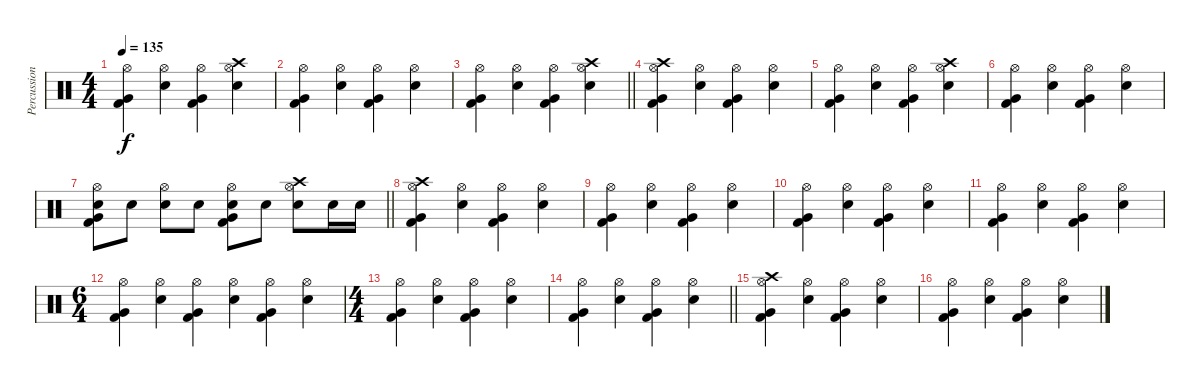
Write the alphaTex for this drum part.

\track ("Percussion" "Percussion") {instrument percussion}
\staff {score}
\articulation defaults
\ts (4 4)
\tempo 135
\clef neutral
\ks c
("Hi-Hat (open)" "Very Low Tom (hit)" "Kick (hit) 2").4{dy f} ("Hi-Hat (open)" "Electric Snare (hit)").4 ("Hi-Hat (open)" "Very Low Tom (hit)" "Kick (hit) 2").4 ("Hi-Hat (open)" "Crash high (hit)" "Electric Snare (hit)").4 |
("Hi-Hat (open)" "Very Low Tom (hit)" "Kick (hit) 2").4 ("Hi-Hat (open)" "Electric Snare (hit)").4 ("Hi-Hat (open)" "Very Low Tom (hit)" "Kick (hit) 2").4 ("Hi-Hat (open)" "Electric Snare (hit)").4 |
\barLineRight lightlight
("Hi-Hat (open)" "Very Low Tom (hit)" "Kick (hit) 2").4 ("Hi-Hat (open)" "Electric Snare (hit)").4 ("Hi-Hat (open)" "Very Low Tom (hit)" "Kick (hit) 2").4 ("Hi-Hat (open)" "Crash high (hit)" "Electric Snare (hit)").4 |
("Hi-Hat (open)" "Crash high (hit)" "Very Low Tom (hit)" "Kick (hit) 2").4 ("Hi-Hat (open)" "Electric Snare (hit)").4 ("Hi-Hat (open)" "Very Low Tom (hit)" "Kick (hit) 2").4 ("Hi-Hat (open)" "Electric Snare (hit)").4 |
("Hi-Hat (open)" "Very Low Tom (hit)" "Kick (hit) 2").4 ("Hi-Hat (open)" "Electric Snare (hit)").4 ("Hi-Hat (open)" "Very Low Tom (hit)" "Kick (hit) 2").4 ("Hi-Hat (open)" "Crash high (hit)" "Electric Snare (hit)").4 |
("Hi-Hat (open)" "Very Low Tom (hit)" "Kick (hit) 2").4 ("Hi-Hat (open)" "Electric Snare (hit)").4 ("Hi-Hat (open)" "Very Low Tom (hit)" "Kick (hit) 2").4 ("Hi-Hat (open)" "Electric Snare (hit)").4 |
\barLineRight lightlight
("Hi-Hat (open)" "Electric Snare (hit)" "Very Low Tom (hit)" "Kick (hit) 2").8 "Electric Snare (hit)".8 ("Hi-Hat (open)" "Electric Snare (hit)").8 "Electric Snare (hit)".8 ("Hi-Hat (open)" "Electric Snare (hit)" "Very Low Tom (hit)" "Kick (hit) 2").8 "Electric Snare (hit)".8 ("Hi-Hat (open)" "Crash high (hit)" "Electric Snare (hit)").8 "Electric Snare (hit)".16 "Electric Snare (hit)".16 |
("Hi-Hat (open)" "Crash high (hit)" "Very Low Tom (hit)" "Kick (hit) 2").4 ("Hi-Hat (open)" "Electric Snare (hit)").4 ("Hi-Hat (open)" "Very Low Tom (hit)" "Kick (hit) 2").4 ("Hi-Hat (open)" "Electric Snare (hit)").4 |
("Hi-Hat (open)" "Very Low Tom (hit)" "Kick (hit) 2").4 ("Hi-Hat (open)" "Electric Snare (hit)").4 ("Hi-Hat (open)" "Very Low Tom (hit)" "Kick (hit) 2").4 ("Hi-Hat (open)" "Electric Snare (hit)").4 |
("Hi-Hat (open)" "Very Low Tom (hit)" "Kick (hit) 2").4 ("Hi-Hat (open)" "Electric Snare (hit)").4 ("Hi-Hat (open)" "Very Low Tom (hit)" "Kick (hit) 2").4 ("Hi-Hat (open)" "Electric Snare (hit)").4 |
("Hi-Hat (open)" "Very Low Tom (hit)" "Kick (hit) 2").4 ("Hi-Hat (open)" "Electric Snare (hit)").4 ("Hi-Hat (open)" "Very Low Tom (hit)" "Kick (hit) 2").4 ("Hi-Hat (open)" "Electric Snare (hit)").4 |
\ts (6 4)
("Hi-Hat (open)" "Very Low Tom (hit)" "Kick (hit) 2").4 ("Hi-Hat (open)" "Electric Snare (hit)").4 ("Hi-Hat (open)" "Very Low Tom (hit)" "Kick (hit) 2").4 ("Hi-Hat (open)" "Electric Snare (hit)").4 ("Hi-Hat (open)" "Very Low Tom (hit)" "Kick (hit) 2").4 ("Hi-Hat (open)" "Electric Snare (hit)").4 |
\ts (4 4)
("Hi-Hat (open)" "Very Low Tom (hit)" "Kick (hit) 2").4 ("Hi-Hat (open)" "Electric Snare (hit)").4 ("Hi-Hat (open)" "Very Low Tom (hit)" "Kick (hit) 2").4 ("Hi-Hat (open)" "Electric Snare (hit)").4 |
\barLineRight lightlight
("Hi-Hat (open)" "Very Low Tom (hit)" "Kick (hit) 2").4 ("Hi-Hat (open)" "Electric Snare (hit)").4 ("Hi-Hat (open)" "Very Low Tom (hit)" "Kick (hit) 2").4 ("Hi-Hat (open)" "Electric Snare (hit)").4 |
("Hi-Hat (open)" "Crash high (hit)" "Very Low Tom (hit)" "Kick (hit) 2").4 ("Hi-Hat (open)" "Electric Snare (hit)").4 ("Hi-Hat (open)" "Very Low Tom (hit)" "Kick (hit) 2").4 ("Hi-Hat (open)" "Electric Snare (hit)").4 |
("Hi-Hat (open)" "Very Low Tom (hit)" "Kick (hit) 2").4 ("Hi-Hat (open)" "Electric Snare (hit)").4 ("Hi-Hat (open)" "Very Low Tom (hit)" "Kick (hit) 2").4 ("Hi-Hat (open)" "Electric Snare (hit)").4
